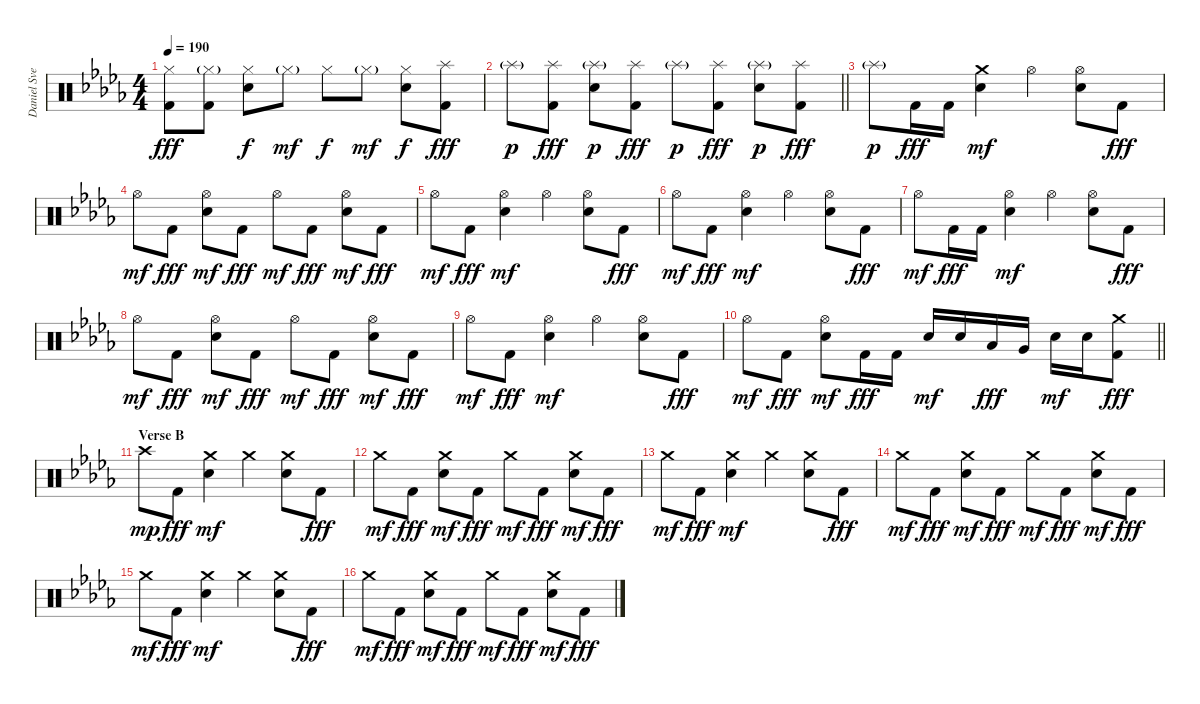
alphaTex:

\track ("Daniel Svensson" "Daniel Sve") {instrument percussion}
\staff {score}
\articulation defaults
\ts (4 4)
\tempo 190
\clef neutral
\ks db
("Hi-Hat (closed)" "Kick (hit) 2").8{dy fff} ("Hi-Hat (closed)"{g} "Kick (hit) 2").8 ("Hi-Hat (closed)" "Electric Snare (hit)").8{dy f} "Hi-Hat (closed)"{g}.8{dy mf} "Hi-Hat (closed)".8{dy f} "Hi-Hat (closed)"{g}.8{dy mf} ("Hi-Hat (closed)" "Electric Snare (hit)").8{dy f} ("Splash (hit)" "Kick (hit) 2").8{dy fff} |
\barLineRight lightlight "Splash (hit)"{g}.8{dy p}
("Splash (hit)" "Kick (hit) 2").8{dy fff} ("Splash (hit)"{g} "Electric Snare (hit)").8{dy p} ("Splash (hit)" "Kick (hit) 2").8{dy fff} "Splash (hit)"{g}.8{dy p} ("Splash (hit)" "Kick (hit) 2").8{dy fff} ("Splash (hit)"{g} "Electric Snare (hit)").8{dy p} ("Splash (hit)" "Kick (hit) 2").8{dy fff} |
"Splash (hit)"{g}.8{dy p} "Kick (hit) 2".16{dy fff} "Kick (hit) 2".16 ("Crash medium (hit)" "Electric Snare (hit)").4{dy mf} "Hi-Hat (open)".4 ("Hi-Hat (open)" "Electric Snare (hit)").8 "Kick (hit) 2".8{dy fff} |
"Hi-Hat (open)".8{dy mf} "Kick (hit) 2".8{dy fff} ("Hi-Hat (open)" "Electric Snare (hit)").8{dy mf} "Kick (hit) 2".8{dy fff} "Hi-Hat (open)".8{dy mf} "Kick (hit) 2".8{dy fff} ("Hi-Hat (open)" "Electric Snare (hit)").8{dy mf} "Kick (hit) 2".8{dy fff} |
"Hi-Hat (open)".8{dy mf} "Kick (hit) 2".8{dy fff} ("Hi-Hat (open)" "Electric Snare (hit)").4{dy mf} "Hi-Hat (open)".4 ("Hi-Hat (open)" "Electric Snare (hit)").8 "Kick (hit) 2".8{dy fff} |
"Hi-Hat (open)".8{dy mf} "Kick (hit) 2".8{dy fff} ("Hi-Hat (open)" "Electric Snare (hit)").4{dy mf} "Hi-Hat (open)".4 ("Hi-Hat (open)" "Electric Snare (hit)").8 "Kick (hit) 2".8{dy fff} |
"Hi-Hat (open)".8{dy mf} "Kick (hit) 2".16{dy fff} "Kick (hit) 2".16 ("Hi-Hat (open)" "Electric Snare (hit)").4{dy mf} "Hi-Hat (open)".4 ("Hi-Hat (open)" "Electric Snare (hit)").8 "Kick (hit) 2".8{dy fff} |
"Hi-Hat (open)".8{dy mf} "Kick (hit) 2".8{dy fff} ("Hi-Hat (open)" "Electric Snare (hit)").8{dy mf} "Kick (hit) 2".8{dy fff} "Hi-Hat (open)".8{dy mf} "Kick (hit) 2".8{dy fff} ("Hi-Hat (open)" "Electric Snare (hit)").8{dy mf} "Kick (hit) 2".8{dy fff} |
"Hi-Hat (open)".8{dy mf} "Kick (hit) 2".8{dy fff} ("Hi-Hat (open)" "Electric Snare (hit)").4{dy mf} "Hi-Hat (open)".4 ("Hi-Hat (open)" "Electric Snare (hit)").8 "Kick (hit) 2".8{dy fff} |
\barLineRight lightlight "Hi-Hat (open)".8{dy mf} "Kick (hit) 2".8{dy fff}
("Hi-Hat (open)" "Electric Snare (hit)").8{dy mf} "Kick (hit) 2".16{dy fff} "Kick (hit) 2".16 "Electric Snare (hit)".16{dy mf} "Electric Snare (hit)".16 "Low Tom (hit)".16{dy fff} "Very Low Tom (hit)".16 "Electric Snare (hit)".16{dy mf} "Electric Snare (hit)".16 ("Crash medium (hit)" "Kick (hit) 2").8{dy fff} |
\section ("" "Verse B")
"Crash high (hit)".8{dy mp} "Kick (hit) 2".8{dy fff} ("Crash medium (hit)" "Electric Snare (hit)").4{dy mf} "Crash medium (hit)".4 ("Crash medium (hit)" "Electric Snare (hit)").8 "Kick (hit) 2".8{dy fff} |
"Crash medium (hit)".8{dy mf} "Kick (hit) 2".8{dy fff} ("Crash medium (hit)" "Electric Snare (hit)").8{dy mf} "Kick (hit) 2".8{dy fff} "Crash medium (hit)".8{dy mf} "Kick (hit) 2".8{dy fff} ("Crash medium (hit)" "Electric Snare (hit)").8{dy mf} "Kick (hit) 2".8{dy fff} |
"Crash medium (hit)".8{dy mf} "Kick (hit) 2".8{dy fff} ("Crash medium (hit)" "Electric Snare (hit)").4{dy mf} "Crash medium (hit)".4 ("Crash medium (hit)" "Electric Snare (hit)").8 "Kick (hit) 2".8{dy fff} |
"Crash medium (hit)".8{dy mf} "Kick (hit) 2".8{dy fff} ("Crash medium (hit)" "Electric Snare (hit)").8{dy mf} "Kick (hit) 2".8{dy fff} "Crash medium (hit)".8{dy mf} "Kick (hit) 2".8{dy fff} ("Crash medium (hit)" "Electric Snare (hit)").8{dy mf} "Kick (hit) 2".8{dy fff} |
"Crash medium (hit)".8{dy mf} "Kick (hit) 2".8{dy fff} ("Crash medium (hit)" "Electric Snare (hit)").4{dy mf} "Crash medium (hit)".4 ("Crash medium (hit)" "Electric Snare (hit)").8 "Kick (hit) 2".8{dy fff} |
"Crash medium (hit)".8{dy mf} "Kick (hit) 2".8{dy fff} ("Crash medium (hit)" "Electric Snare (hit)").8{dy mf} "Kick (hit) 2".8{dy fff} "Crash medium (hit)".8{dy mf} "Kick (hit) 2".8{dy fff} ("Crash medium (hit)" "Electric Snare (hit)").8{dy mf} "Kick (hit) 2".8{dy fff}
